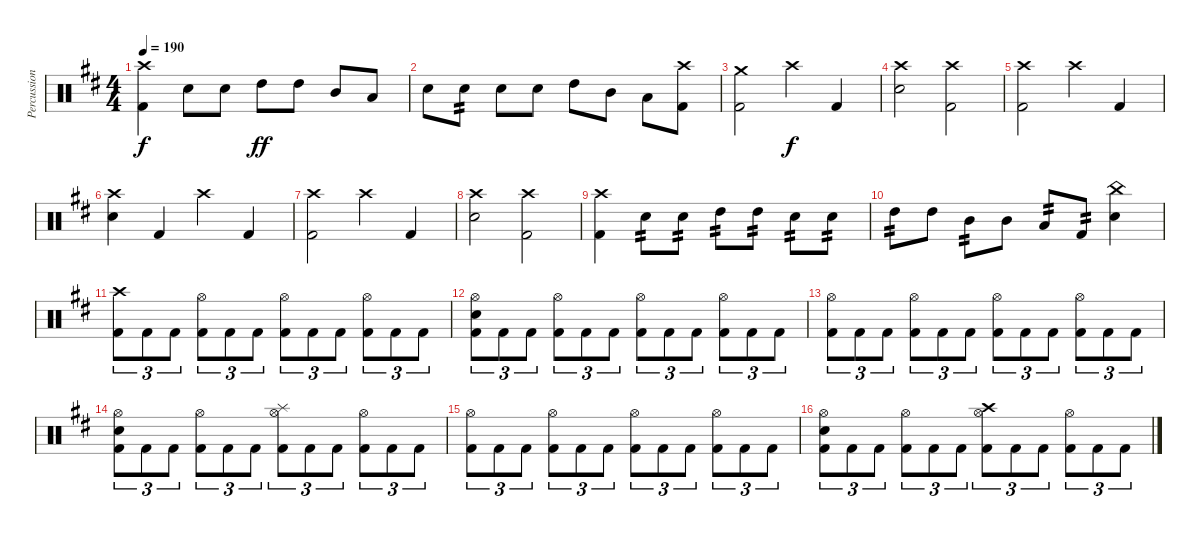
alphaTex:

\track ("Percussion" "Percussion") {instrument percussion}
\staff {score}
\articulation defaults
\ts (4 4)
\tempo 190
\clef neutral
\ks d
("Crash high (hit)" "Kick (hit) 2").4{dy f} "Electric Snare (hit)".8 "Electric Snare (hit)".8 "High Tom (hit)".8{dy ff} "High Tom (hit)".8 "Mid Tom (hit)".8 "Low Tom (hit)".8 |
"Electric Snare (hit)".8 "Electric Snare (hit)".8{tp 2} "Electric Snare (hit)".8 "Electric Snare (hit)".8 "High Tom (hit)".8 "Mid Tom (hit)".8 "Low Tom (hit)".8 ("Kick (hit) 2" "Crash high (hit)").8 |
("Crash medium (hit)" "Kick (hit) 2").2 "Crash high (hit)".4{dy f} "Kick (hit) 2".4 |
("Crash high (hit)" "Electric Snare (hit)").2 ("Crash high (hit)" "Kick (hit) 2").2 |
("Crash high (hit)" "Kick (hit) 2").2 "Crash high (hit)".4 "Kick (hit) 2".4 |
("Crash high (hit)" "Electric Snare (hit)").4 "Kick (hit) 2".4 "Crash high (hit)".4 "Kick (hit) 2".4 |
("Crash high (hit)" "Kick (hit) 2").2 "Crash high (hit)".4 "Kick (hit) 2".4 |
("Crash high (hit)" "Electric Snare (hit)").2 ("Crash high (hit)" "Kick (hit) 2").2 |
("Crash high (hit)" "Kick (hit) 2").4 "Electric Snare (hit)".8{tp 2} "Electric Snare (hit)".8{tp 2} "High Tom (hit)".8{tp 2} "High Tom (hit)".8{tp 2} "Electric Snare (hit)".8{tp 2} "Electric Snare (hit)".8{tp 2} |
"High Tom (hit)".8{tp 2} "High Tom (hit)".8 "Mid Tom (hit)".8{tp 2} "Mid Tom (hit)".8 "Low Tom (hit)".8{tp 2} "Kick (hit) 2".8{tp 2} ("China (hit)" "Electric Snare (hit)").4 |
("Kick (hit) 2" "Crash high (hit)").8{tu (3 2)} "Kick (hit) 2".8{tu (3 2)} "Kick (hit) 2".8{tu (3 2)} ("Kick (hit) 2" "Hi-Hat (open)").8{tu (3 2)} "Kick (hit) 2".8{tu (3 2)} "Kick (hit) 2".8{tu (3 2)} ("Hi-Hat (open)" "Kick (hit) 2").8{tu (3 2)} "Kick (hit) 2".8{tu (3 2)} "Kick (hit) 2".8{tu (3 2)} ("Kick (hit) 2" "Hi-Hat (open)").8{tu (3 2)} "Kick (hit) 2".8{tu (3 2)} "Kick (hit) 2".8{tu (3 2)} |
("Kick (hit) 2" "Hi-Hat (open)" "Electric Snare (hit)").8{tu (3 2)} "Kick (hit) 2".8{tu (3 2)} "Kick (hit) 2".8{tu (3 2)} ("Kick (hit) 2" "Hi-Hat (open)").8{tu (3 2)} "Kick (hit) 2".8{tu (3 2)} "Kick (hit) 2".8{tu (3 2)} ("Hi-Hat (open)" "Kick (hit) 2").8{tu (3 2)} "Kick (hit) 2".8{tu (3 2)} "Kick (hit) 2".8{tu (3 2)} ("Kick (hit) 2" "Hi-Hat (open)").8{tu (3 2)} "Kick (hit) 2".8{tu (3 2)} "Kick (hit) 2".8{tu (3 2)} |
("Kick (hit) 2" "Hi-Hat (open)").8{tu (3 2)} "Kick (hit) 2".8{tu (3 2)} "Kick (hit) 2".8{tu (3 2)} ("Kick (hit) 2" "Hi-Hat (open)").8{tu (3 2)} "Kick (hit) 2".8{tu (3 2)} "Kick (hit) 2".8{tu (3 2)} ("Hi-Hat (open)" "Kick (hit) 2").8{tu (3 2)} "Kick (hit) 2".8{tu (3 2)} "Kick (hit) 2".8{tu (3 2)} ("Kick (hit) 2" "Hi-Hat (open)").8{tu (3 2)} "Kick (hit) 2".8{tu (3 2)} "Kick (hit) 2".8{tu (3 2)} |
("Kick (hit) 2" "Hi-Hat (open)" "Electric Snare (hit)").8{tu (3 2)} "Kick (hit) 2".8{tu (3 2)} "Kick (hit) 2".8{tu (3 2)} ("Kick (hit) 2" "Hi-Hat (open)").8{tu (3 2)} "Kick (hit) 2".8{tu (3 2)} "Kick (hit) 2".8{tu (3 2)} ("Hi-Hat (open)" "Kick (hit) 2" "Splash (hit)").8{tu (3 2)} "Kick (hit) 2".8{tu (3 2)} "Kick (hit) 2".8{tu (3 2)} ("Kick (hit) 2" "Hi-Hat (open)").8{tu (3 2)} "Kick (hit) 2".8{tu (3 2)} "Kick (hit) 2".8{tu (3 2)} |
("Kick (hit) 2" "Hi-Hat (open)").8{tu (3 2)} "Kick (hit) 2".8{tu (3 2)} "Kick (hit) 2".8{tu (3 2)} ("Kick (hit) 2" "Hi-Hat (open)").8{tu (3 2)} "Kick (hit) 2".8{tu (3 2)} "Kick (hit) 2".8{tu (3 2)} ("Hi-Hat (open)" "Kick (hit) 2").8{tu (3 2)} "Kick (hit) 2".8{tu (3 2)} "Kick (hit) 2".8{tu (3 2)} ("Kick (hit) 2" "Hi-Hat (open)").8{tu (3 2)} "Kick (hit) 2".8{tu (3 2)} "Kick (hit) 2".8{tu (3 2)} |
("Kick (hit) 2" "Hi-Hat (open)" "Electric Snare (hit)").8{tu (3 2)} "Kick (hit) 2".8{tu (3 2)} "Kick (hit) 2".8{tu (3 2)} ("Kick (hit) 2" "Hi-Hat (open)").8{tu (3 2)} "Kick (hit) 2".8{tu (3 2)} "Kick (hit) 2".8{tu (3 2)} ("Hi-Hat (open)" "Kick (hit) 2" "Crash high (hit)").8{tu (3 2)} "Kick (hit) 2".8{tu (3 2)} "Kick (hit) 2".8{tu (3 2)} ("Kick (hit) 2" "Hi-Hat (open)").8{tu (3 2)} "Kick (hit) 2".8{tu (3 2)} "Kick (hit) 2".8{tu (3 2)}
